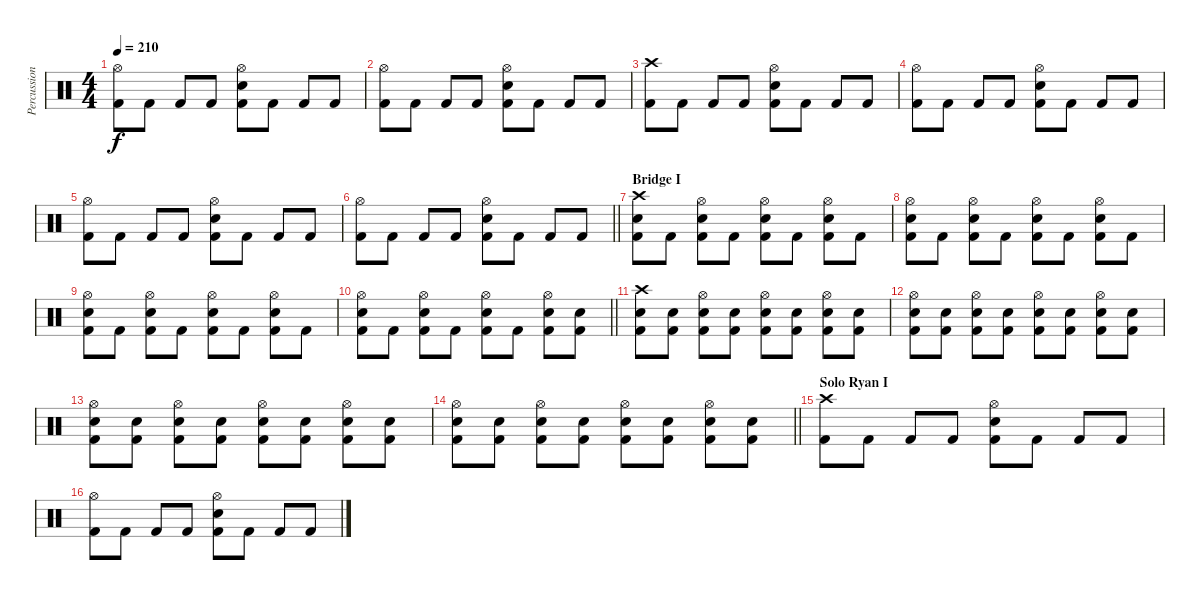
\track ("Percussion" "Percussion") {instrument percussion}
\staff {score}
\articulation defaults
\ts (4 4)
\tempo 210
\clef neutral
\ks c
("Hi-Hat (open)" "Kick (hit) 2").8{dy f} "Kick (hit) 2".8 "Kick (hit) 2".8 "Kick (hit) 2".8 ("Hi-Hat (open)" "Snare (hit) 2" "Kick (hit) 2").8 "Kick (hit) 2".8 "Kick (hit) 2".8 "Kick (hit) 2".8 |
("Hi-Hat (open)" "Kick (hit) 2").8 "Kick (hit) 2".8 "Kick (hit) 2".8 "Kick (hit) 2".8 ("Hi-Hat (open)" "Snare (hit) 2" "Kick (hit) 2").8 "Kick (hit) 2".8 "Kick (hit) 2".8 "Kick (hit) 2".8 |
("Crash high (hit)" "Kick (hit) 2").8 "Kick (hit) 2".8 "Kick (hit) 2".8 "Kick (hit) 2".8 ("Hi-Hat (open)" "Snare (hit) 2" "Kick (hit) 2").8 "Kick (hit) 2".8 "Kick (hit) 2".8 "Kick (hit) 2".8 |
("Hi-Hat (open)" "Kick (hit) 2").8 "Kick (hit) 2".8 "Kick (hit) 2".8 "Kick (hit) 2".8 ("Hi-Hat (open)" "Snare (hit) 2" "Kick (hit) 2").8 "Kick (hit) 2".8 "Kick (hit) 2".8 "Kick (hit) 2".8 |
("Hi-Hat (open)" "Kick (hit) 2").8 "Kick (hit) 2".8 "Kick (hit) 2".8 "Kick (hit) 2".8 ("Hi-Hat (open)" "Snare (hit) 2" "Kick (hit) 2").8 "Kick (hit) 2".8 "Kick (hit) 2".8 "Kick (hit) 2".8 |
\barLineRight lightlight
("Hi-Hat (open)" "Kick (hit) 2").8 "Kick (hit) 2".8 "Kick (hit) 2".8 "Kick (hit) 2".8 ("Hi-Hat (open)" "Snare (hit) 2" "Kick (hit) 2").8 "Kick (hit) 2".8 "Kick (hit) 2".8 "Kick (hit) 2".8 |
\section ("" "Bridge I")
("Crash high (hit)" "Snare (hit) 2" "Kick (hit) 2").8 "Kick (hit) 2".8 ("Hi-Hat (open)" "Snare (hit) 2" "Kick (hit) 2").8 "Kick (hit) 2".8 ("Hi-Hat (open)" "Snare (hit) 2" "Kick (hit) 2").8 "Kick (hit) 2".8 ("Hi-Hat (open)" "Snare (hit) 2" "Kick (hit) 2").8 "Kick (hit) 2".8 |
("Hi-Hat (open)" "Snare (hit) 2" "Kick (hit) 2").8 "Kick (hit) 2".8 ("Hi-Hat (open)" "Snare (hit) 2" "Kick (hit) 2").8 "Kick (hit) 2".8 ("Hi-Hat (open)" "Snare (hit) 2" "Kick (hit) 2").8 "Kick (hit) 2".8 ("Hi-Hat (open)" "Snare (hit) 2" "Kick (hit) 2").8 "Kick (hit) 2".8 |
("Hi-Hat (open)" "Snare (hit) 2" "Kick (hit) 2").8 "Kick (hit) 2".8 ("Hi-Hat (open)" "Snare (hit) 2" "Kick (hit) 2").8 "Kick (hit) 2".8 ("Hi-Hat (open)" "Snare (hit) 2" "Kick (hit) 2").8 "Kick (hit) 2".8 ("Hi-Hat (open)" "Snare (hit) 2" "Kick (hit) 2").8 "Kick (hit) 2".8 |
\barLineRight lightlight
("Hi-Hat (open)" "Snare (hit) 2" "Kick (hit) 2").8 "Kick (hit) 2".8 ("Hi-Hat (open)" "Snare (hit) 2" "Kick (hit) 2").8 "Kick (hit) 2".8 ("Hi-Hat (open)" "Snare (hit) 2" "Kick (hit) 2").8 "Kick (hit) 2".8 ("Hi-Hat (open)" "Snare (hit) 2" "Kick (hit) 2").8 ("Snare (hit) 2" "Kick (hit) 2").8 |
("Crash high (hit)" "Snare (hit) 2" "Kick (hit) 2").8 ("Snare (hit) 2" "Kick (hit) 2").8 ("Hi-Hat (open)" "Snare (hit) 2" "Kick (hit) 2").8 ("Snare (hit) 2" "Kick (hit) 2").8 ("Hi-Hat (open)" "Snare (hit) 2" "Kick (hit) 2").8 ("Snare (hit) 2" "Kick (hit) 2").8 ("Hi-Hat (open)" "Snare (hit) 2" "Kick (hit) 2").8 ("Snare (hit) 2" "Kick (hit) 2").8 |
("Hi-Hat (open)" "Snare (hit) 2" "Kick (hit) 2").8 ("Snare (hit) 2" "Kick (hit) 2").8 ("Hi-Hat (open)" "Snare (hit) 2" "Kick (hit) 2").8 ("Snare (hit) 2" "Kick (hit) 2").8 ("Hi-Hat (open)" "Snare (hit) 2" "Kick (hit) 2").8 ("Snare (hit) 2" "Kick (hit) 2").8 ("Hi-Hat (open)" "Snare (hit) 2" "Kick (hit) 2").8 ("Snare (hit) 2" "Kick (hit) 2").8 |
("Hi-Hat (open)" "Snare (hit) 2" "Kick (hit) 2").8 ("Snare (hit) 2" "Kick (hit) 2").8 ("Hi-Hat (open)" "Snare (hit) 2" "Kick (hit) 2").8 ("Snare (hit) 2" "Kick (hit) 2").8 ("Hi-Hat (open)" "Snare (hit) 2" "Kick (hit) 2").8 ("Snare (hit) 2" "Kick (hit) 2").8 ("Hi-Hat (open)" "Snare (hit) 2" "Kick (hit) 2").8 ("Snare (hit) 2" "Kick (hit) 2").8 |
\barLineRight lightlight
("Hi-Hat (open)" "Snare (hit) 2" "Kick (hit) 2").8 ("Snare (hit) 2" "Kick (hit) 2").8 ("Hi-Hat (open)" "Snare (hit) 2" "Kick (hit) 2").8 ("Snare (hit) 2" "Kick (hit) 2").8 ("Hi-Hat (open)" "Snare (hit) 2" "Kick (hit) 2").8 ("Snare (hit) 2" "Kick (hit) 2").8 ("Hi-Hat (open)" "Snare (hit) 2" "Kick (hit) 2").8 ("Snare (hit) 2" "Kick (hit) 2").8 |
\section ("" "Solo Ryan I")
("Crash high (hit)" "Kick (hit) 2").8 "Kick (hit) 2".8 "Kick (hit) 2".8 "Kick (hit) 2".8 ("Hi-Hat (open)" "Snare (hit) 2" "Kick (hit) 2").8 "Kick (hit) 2".8 "Kick (hit) 2".8 "Kick (hit) 2".8 |
("Hi-Hat (open)" "Kick (hit) 2").8 "Kick (hit) 2".8 "Kick (hit) 2".8 "Kick (hit) 2".8 ("Hi-Hat (open)" "Snare (hit) 2" "Kick (hit) 2").8 "Kick (hit) 2".8 "Kick (hit) 2".8 "Kick (hit) 2".8
